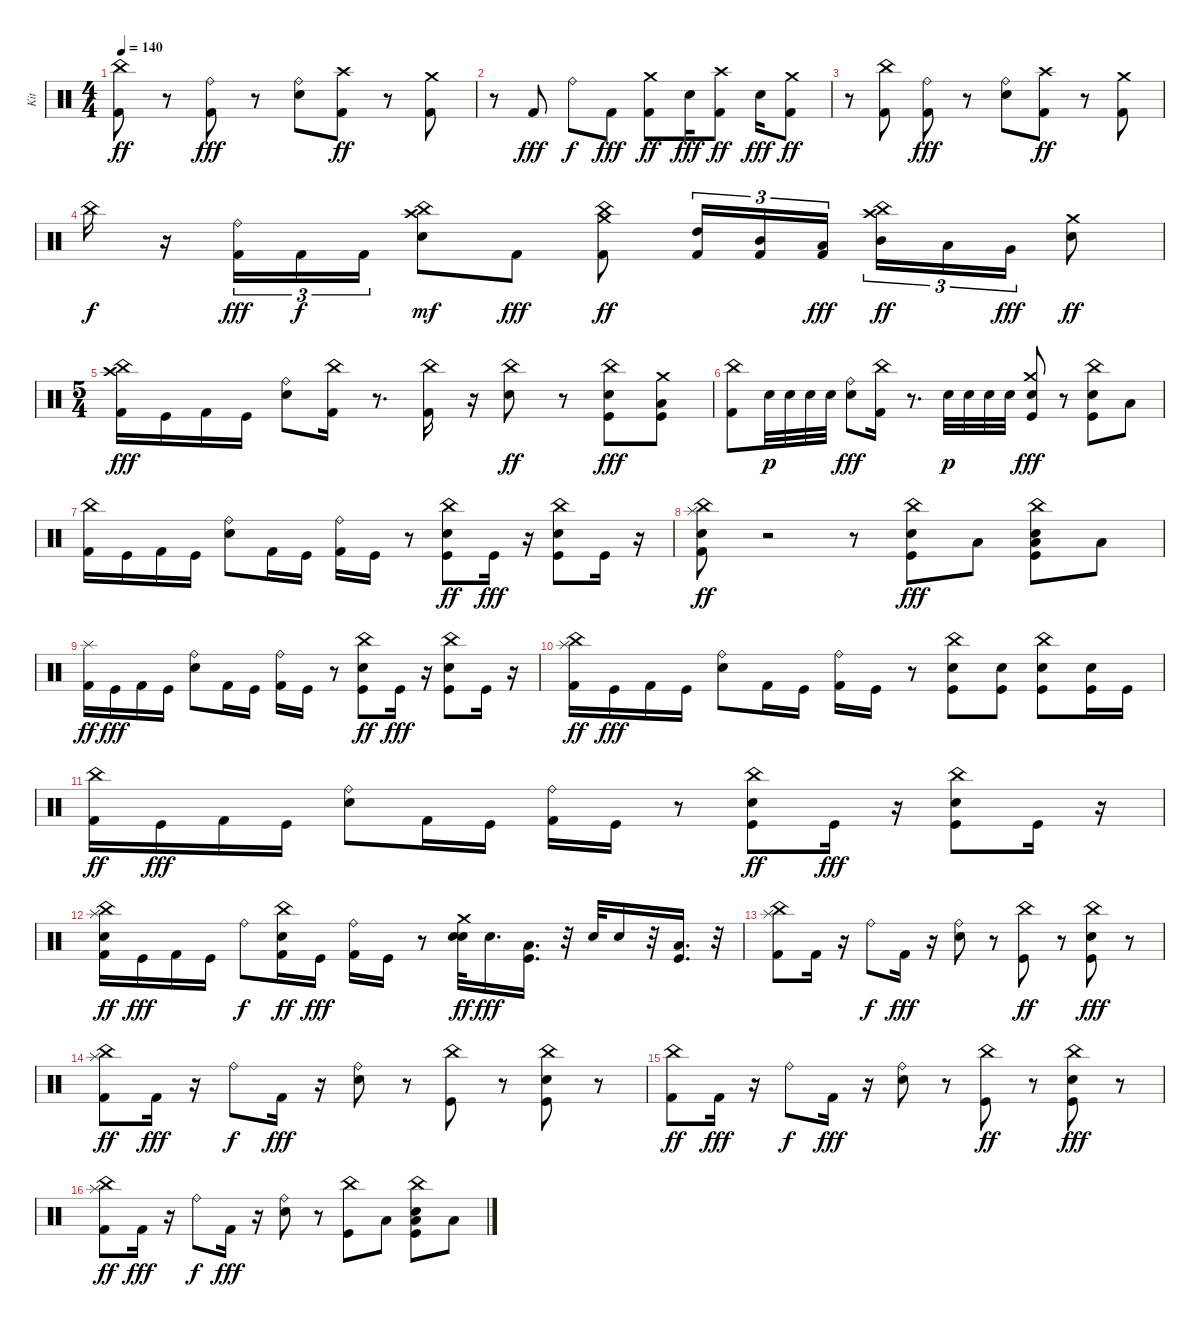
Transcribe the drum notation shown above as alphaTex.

\track ("Kit" "Kit") {instrument percussion}
\staff {score}
\articulation defaults
\ts (4 4)
\tempo 140
\clef neutral
\ks c
("Kick (hit) 2" "China (hit)").8{dy ff} r.8 ("Kick (hit) 2" "Ride (bell)").8{dy fff} r.8 ("Snare (hit) 2" "Ride (bell)").8 ("Kick (hit) 2" "Crash high (hit)").8{dy ff} r.8 ("Kick (hit) 2" "Crash medium (hit)").8 |
r.8 "Kick (hit) 2".8{dy fff} "Ride (bell)".8{dy f} "Kick (hit) 2".8{dy fff} ("Kick (hit) 2" "Crash medium (hit)").8{dy ff} "Snare (hit) 2".16{dy fff} ("Kick (hit) 2" "Crash high (hit)").8{dy ff} "Snare (hit) 2".16{dy fff} ("Kick (hit) 2" "Crash medium (hit)").8{dy ff} |
r.8 ("Kick (hit) 2" "China (hit)").8 ("Kick (hit) 2" "Ride (bell)").8{dy fff} r.8 ("Snare (hit) 2" "Ride (bell)").8 ("Kick (hit) 2" "Crash high (hit)").8{dy ff} r.8 ("Kick (hit) 2" "Crash medium (hit)").8 |
"China (hit)".16{dy f} r.16 ("Kick (hit) 2" "Ride (bell)").16{tu (3 2) dy fff} "Kick (hit) 2".16{tu (3 2) dy f} "Kick (hit) 2".16{tu (3 2)} ("Snare (hit) 2" "Crash high (hit)" "China (hit)").8{dy mf} "Kick (hit) 2".8{dy fff} ("Kick (hit) 2" "China (hit)" "Crash medium (hit)").8{dy ff} ("Kick (hit) 2" "High Tom (hit)").16{tu (3 2)} ("Kick (hit) 2" "Mid Tom (hit)").16{tu (3 2)} ("Kick (hit) 2" "Low Tom (hit)").16{tu (3 2) dy fff} ("Mid Tom (hit)" "Crash high (hit)" "China (hit)").16{tu (3 2) dy ff} "Low Tom (hit)".16{tu (3 2)} "Very Low Tom (hit)".16{tu (3 2) dy fff} ("Snare (hit) 2" "Crash medium (hit)").8{dy ff} |
\ts (5 4)
("Kick (hit) 2" "Crash high (hit)" "China (hit)").16{dy fff} "Kick (hit)".16 "Kick (hit) 2".16 "Kick (hit)".16 ("Snare (hit) 2" "Ride (bell)").8 ("Kick (hit) 2" "China (hit)").16 r.8{d} ("Kick (hit) 2" "China (hit)").16 r.16 ("Snare (hit) 2" "China (hit)").8{dy ff} r.8 ("Kick (hit)" "Snare (hit) 2" "China (hit)").8{dy fff} ("Kick (hit)" "Low Floor Tom (hit)" "Crash medium (hit)").8 |
("Kick (hit) 2" "China (hit)").8 "Snare (hit) 2".32{dy p} "Snare (hit) 2".32 "Snare (hit) 2".32 "Snare (hit) 2".32 ("Snare (hit) 2" "Ride (bell)").8{dy fff} ("Kick (hit) 2" "China (hit)").16 r.8{d} "Snare (hit) 2".32{dy p} "Snare (hit) 2".32 "Snare (hit) 2".32 "Snare (hit) 2".32 ("Kick (hit)" "Snare (hit) 2" "Crash medium (hit)").8{dy fff} r.8 ("Kick (hit)" "Snare (hit) 2" "China (hit)").8 "Low Floor Tom (hit)".8 |
("Kick (hit) 2" "China (hit)").16 "Kick (hit)".16 "Kick (hit) 2".16 "Kick (hit)".16 ("Snare (hit) 2" "Ride (bell)").8 "Kick (hit) 2".16 "Kick (hit)".16 ("Kick (hit) 2" "Ride (bell)").16 "Kick (hit)".16 r.8 ("Kick (hit)" "Snare (hit) 2" "China (hit)").8{dy ff} "Kick (hit)".16{dy fff} r.16 ("Kick (hit)" "Snare (hit) 2" "China (hit)").8 "Kick (hit)".16 r.16 |
("Kick (hit) 2" "Snare (hit) 2" "China (hit)" "Splash (hit)").8{dy ff} r.2 r.8 ("Kick (hit)" "Snare (hit) 2" "China (hit)").8{dy fff} "Low Floor Tom (hit)".8 ("Kick (hit)" "Snare (hit) 2" "Low Floor Tom (hit)" "China (hit)").8 "Low Floor Tom (hit)".8 |
("Kick (hit) 2" "Splash (hit)").16{dy ff} "Kick (hit)".16{dy fff} "Kick (hit) 2".16 "Kick (hit)".16 ("Snare (hit) 2" "Ride (bell)").8 "Kick (hit) 2".16 "Kick (hit)".16 ("Kick (hit) 2" "Ride (bell)").16 "Kick (hit)".16 r.8 ("Kick (hit)" "Snare (hit) 2" "China (hit)").8{dy ff} "Kick (hit)".16{dy fff} r.16 ("Kick (hit)" "Snare (hit) 2" "China (hit)").8 "Kick (hit)".16 r.16 |
("Kick (hit) 2" "China (hit)" "Splash (hit)").16{dy ff} "Kick (hit)".16{dy fff} "Kick (hit) 2".16 "Kick (hit)".16 ("Snare (hit) 2" "Ride (bell)").8 "Kick (hit) 2".16 "Kick (hit)".16 ("Kick (hit) 2" "Ride (bell)").16 "Kick (hit)".16 r.8 ("Kick (hit)" "Snare (hit) 2" "China (hit)").8 ("Kick (hit)" "Snare (hit) 2").8 ("Kick (hit)" "Snare (hit) 2" "China (hit)").8 ("Kick (hit)" "Snare (hit) 2").16 "Kick (hit)".16 |
("Kick (hit) 2" "China (hit)").16{dy ff} "Kick (hit)".16{dy fff} "Kick (hit) 2".16 "Kick (hit)".16 ("Snare (hit) 2" "Ride (bell)").8 "Kick (hit) 2".16 "Kick (hit)".16 ("Kick (hit) 2" "Ride (bell)").16 "Kick (hit)".16 r.8 ("Kick (hit)" "Snare (hit) 2" "China (hit)").8{dy ff} "Kick (hit)".16{dy fff} r.16 ("Kick (hit)" "Snare (hit) 2" "China (hit)").8 "Kick (hit)".16 r.16 |
("Kick (hit) 2" "Snare (hit) 2" "China (hit)" "Splash (hit)").16{dy ff} "Kick (hit)".16{dy fff} "Kick (hit) 2".16 "Kick (hit)".16 "Ride (bell)".8{dy f} ("Kick (hit) 2" "Snare (hit) 2" "China (hit)").16{dy ff} "Kick (hit)".16{dy fff} ("Kick (hit) 2" "Ride (bell)").16 "Kick (hit)".16 r.8 ("Snare (hit) 2" "Snare (hit) 2" "Crash medium (hit)").32{dy ff} "Snare (hit) 2".16{d dy fff} ("Kick (hit)" "Low Floor Tom (hit)").16{d} r.32 "Snare (hit) 2".32 "Snare (hit) 2".16 r.32 ("Kick (hit)" "Low Floor Tom (hit)").16{d} r.32 |
("Kick (hit) 2" "China (hit)" "Splash (hit)").8 "Kick (hit) 2".16 r.16 "Ride (bell)".8{dy f} "Kick (hit) 2".16{dy fff} r.16 ("Snare (hit) 2" "Ride (bell)").8 r.8 ("Kick (hit)" "China (hit)").8{dy ff} r.8 ("Kick (hit)" "Snare (hit) 2" "China (hit)").8{dy fff} r.8 |
("Kick (hit) 2" "China (hit)" "Splash (hit)").8{dy ff} "Kick (hit) 2".16{dy fff} r.16 "Ride (bell)".8{dy f} "Kick (hit) 2".16{dy fff} r.16 ("Snare (hit) 2" "Ride (bell)").8 r.8 ("Kick (hit)" "China (hit)").8 r.8 ("Kick (hit)" "Snare (hit) 2" "China (hit)").8 r.8 |
("Kick (hit) 2" "China (hit)").8{dy ff} "Kick (hit) 2".16{dy fff} r.16 "Ride (bell)".8{dy f} "Kick (hit) 2".16{dy fff} r.16 ("Snare (hit) 2" "Ride (bell)").8 r.8 ("Kick (hit)" "China (hit)").8{dy ff} r.8 ("Kick (hit)" "Snare (hit) 2" "China (hit)").8{dy fff} r.8 |
("Kick (hit) 2" "China (hit)" "Splash (hit)").8{dy ff} "Kick (hit) 2".16{dy fff} r.16 "Ride (bell)".8{dy f} "Kick (hit) 2".16{dy fff} r.16 ("Snare (hit) 2" "Ride (bell)").8 r.8 ("Kick (hit)" "China (hit)").8 "Low Floor Tom (hit)".8 ("Kick (hit)" "Snare (hit) 2" "Low Floor Tom (hit)" "China (hit)").8 "Low Floor Tom (hit)".8
